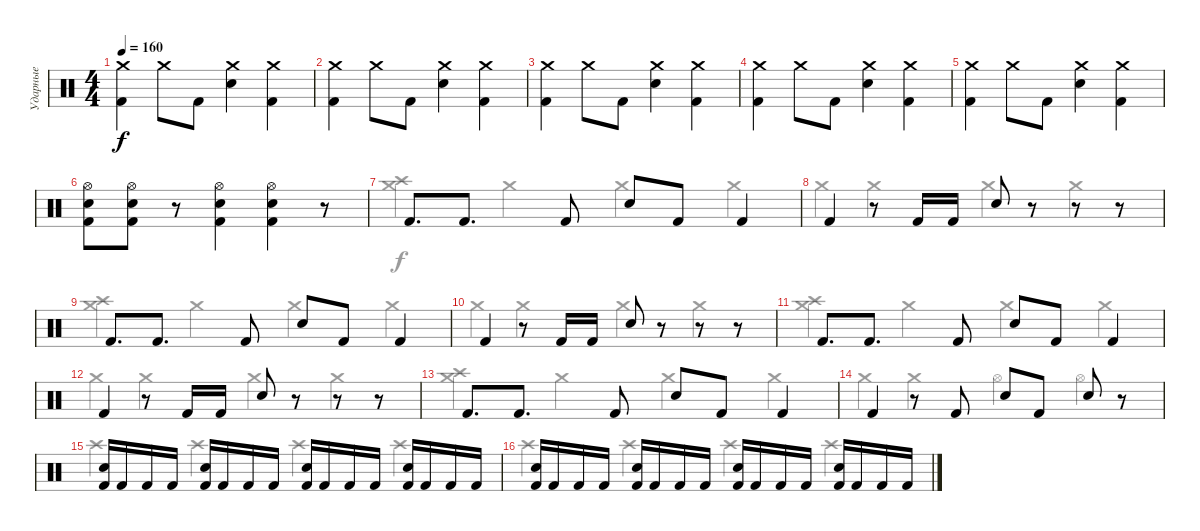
\track ("Ударные" "Ударные") {instrument percussion}
\staff {score}
\articulation defaults
\voice
\ts (4 4)
\tempo 160
\clef neutral
\ks c
("Crash medium (hit)" "Kick (hit) 2").4{dy f} "Crash medium (hit)".8 "Kick (hit) 2".8 ("Crash medium (hit)" "Electric Snare (hit)").4 ("Crash medium (hit)" "Kick (hit) 2").4 |
("Crash medium (hit)" "Kick (hit) 2").4 "Crash medium (hit)".8 "Kick (hit) 2".8 ("Crash medium (hit)" "Electric Snare (hit)").4 ("Crash medium (hit)" "Kick (hit) 2").4 |
("Crash medium (hit)" "Kick (hit) 2").4 "Crash medium (hit)".8 "Kick (hit) 2".8 ("Crash medium (hit)" "Electric Snare (hit)").4 ("Crash medium (hit)" "Kick (hit) 2").4 |
("Crash medium (hit)" "Kick (hit) 2").4 "Crash medium (hit)".8 "Kick (hit) 2".8 ("Crash medium (hit)" "Electric Snare (hit)").4 ("Crash medium (hit)" "Kick (hit) 2").4 |
("Crash medium (hit)" "Kick (hit) 2").4 "Crash medium (hit)".8 "Kick (hit) 2".8 ("Crash medium (hit)" "Electric Snare (hit)").4 ("Crash medium (hit)" "Kick (hit) 2").4 |
("Hi-Hat (open)" "Electric Snare (hit)" "Kick (hit) 2").8 ("Hi-Hat (open)" "Electric Snare (hit)" "Kick (hit) 2").8 r.8 ("Hi-Hat (open)" "Electric Snare (hit)" "Kick (hit) 2").4 ("Hi-Hat (open)" "Electric Snare (hit)" "Kick (hit) 2").4 r.8 |
"Kick (hit) 2".8{d} "Kick (hit) 2".8{d} "Kick (hit) 2".8 "Electric Snare (hit)".8 "Kick (hit) 2".8 "Kick (hit) 2".4 |
"Kick (hit) 2".4 r.8 "Kick (hit) 2".16 "Kick (hit) 2".16 "Electric Snare (hit)".8 r.8 r.8 r.8 |
"Kick (hit) 2".8{d} "Kick (hit) 2".8{d} "Kick (hit) 2".8 "Electric Snare (hit)".8 "Kick (hit) 2".8 "Kick (hit) 2".4 |
"Kick (hit) 2".4 r.8 "Kick (hit) 2".16 "Kick (hit) 2".16 "Electric Snare (hit)".8 r.8 r.8 r.8 |
"Kick (hit) 2".8{d} "Kick (hit) 2".8{d} "Kick (hit) 2".8 "Electric Snare (hit)".8 "Kick (hit) 2".8 "Kick (hit) 2".4 |
"Kick (hit) 2".4 r.8 "Kick (hit) 2".16 "Kick (hit) 2".16 "Electric Snare (hit)".8 r.8 r.8 r.8 |
"Kick (hit) 2".8{d} "Kick (hit) 2".8{d} "Kick (hit) 2".8 "Electric Snare (hit)".8 "Kick (hit) 2".8 "Kick (hit) 2".4 |
"Kick (hit) 2".4 r.8 "Kick (hit) 2".8 "Electric Snare (hit)".8 "Kick (hit) 2".8 "Electric Snare (hit)".8 r.8 |
("Electric Snare (hit)" "Kick (hit) 2").16 "Kick (hit) 2".16 "Kick (hit) 2".16 "Kick (hit) 2".16 ("Electric Snare (hit)" "Kick (hit) 2").16 "Kick (hit) 2".16 "Kick (hit) 2".16 "Kick (hit) 2".16 ("Electric Snare (hit)" "Kick (hit) 2").16 "Kick (hit) 2".16 "Kick (hit) 2".16 "Kick (hit) 2".16 ("Electric Snare (hit)" "Kick (hit) 2").16 "Kick (hit) 2".16 "Kick (hit) 2".16 "Kick (hit) 2".16 |
("Electric Snare (hit)" "Kick (hit) 2").16 "Kick (hit) 2".16 "Kick (hit) 2".16 "Kick (hit) 2".16 ("Electric Snare (hit)" "Kick (hit) 2").16 "Kick (hit) 2".16 "Kick (hit) 2".16 "Kick (hit) 2".16 ("Electric Snare (hit)" "Kick (hit) 2").16 "Kick (hit) 2".16 "Kick (hit) 2".16 "Kick (hit) 2".16 ("Electric Snare (hit)" "Kick (hit) 2").16 "Kick (hit) 2".16 "Kick (hit) 2".16 "Kick (hit) 2".16
\voice
\clef neutral
\ottava regular
\simile none
\ks c
|
|
|
|
|
|
("Crash medium (hit)" "Crash high (hit)").4 "Crash medium (hit)".4 "Crash medium (hit)".4 "Crash medium (hit)".4 |
"Crash medium (hit)".4 "Crash medium (hit)".4 "Crash medium (hit)".4 "Crash medium (hit)".4 |
("Crash medium (hit)" "Crash high (hit)").4 "Crash medium (hit)".4 "Crash medium (hit)".4 "Crash medium (hit)".4 |
"Crash medium (hit)".4 "Crash medium (hit)".4 "Crash medium (hit)".4 "Crash medium (hit)".4 |
("Crash medium (hit)" "Crash high (hit)").4 "Crash medium (hit)".4 "Crash medium (hit)".4 "Crash medium (hit)".4 |
"Crash medium (hit)".4 "Crash medium (hit)".4 "Crash medium (hit)".4 "Crash medium (hit)".4 |
("Crash medium (hit)" "Crash high (hit)").4 "Crash medium (hit)".4 "Crash medium (hit)".4 "Crash medium (hit)".4 |
"Crash medium (hit)".4 "Crash medium (hit)".4 "Hi-Hat (open)".4 "Hi-Hat (open)".4 |
"Crash high (hit)".4 "Crash high (hit)".4 "Crash high (hit)".4 "Crash high (hit)".4 |
"Crash high (hit)".4 "Crash high (hit)".4 "Crash high (hit)".4 "Crash high (hit)".4
